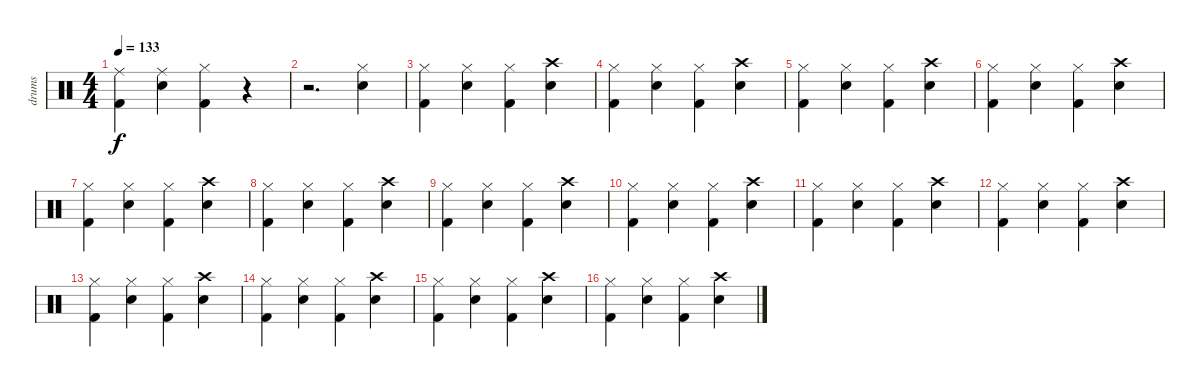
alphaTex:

\track ("drums" "drums") {instrument percussion}
\staff {score}
\articulation defaults
\ts (4 4)
\tempo 133
\clef neutral
\ks c
("Ride (middle)" "Kick (hit) 2").4{dy f} ("Ride (middle)" "Snare (hit) 2").4 ("Hi-Hat (closed)" "Kick (hit) 2").4 r.4 |
r.2{d} ("Hi-Hat (closed)" "Snare (hit) 2").4 |
("Hi-Hat (closed)" "Kick (hit) 2").4 ("Hi-Hat (closed)" "Snare (hit) 2").4 ("Hi-Hat (closed)" "Kick (hit) 2").4 ("Crash high (hit)" "Snare (hit) 2").4 |
("Hi-Hat (closed)" "Kick (hit) 2").4 ("Hi-Hat (closed)" "Snare (hit) 2").4 ("Hi-Hat (closed)" "Kick (hit) 2").4 ("Crash high (hit)" "Snare (hit) 2").4 |
("Hi-Hat (closed)" "Kick (hit) 2").4 ("Hi-Hat (closed)" "Snare (hit) 2").4 ("Hi-Hat (closed)" "Kick (hit) 2").4 ("Crash high (hit)" "Snare (hit) 2").4 |
("Hi-Hat (closed)" "Kick (hit) 2").4 ("Hi-Hat (closed)" "Snare (hit) 2").4 ("Hi-Hat (closed)" "Kick (hit) 2").4 ("Crash high (hit)" "Snare (hit) 2").4 |
("Hi-Hat (closed)" "Kick (hit) 2").4 ("Hi-Hat (closed)" "Snare (hit) 2").4 ("Hi-Hat (closed)" "Kick (hit) 2").4 ("Crash high (hit)" "Snare (hit) 2").4 |
("Hi-Hat (closed)" "Kick (hit) 2").4 ("Hi-Hat (closed)" "Snare (hit) 2").4 ("Hi-Hat (closed)" "Kick (hit) 2").4 ("Crash high (hit)" "Snare (hit) 2").4 |
("Hi-Hat (closed)" "Kick (hit) 2").4 ("Hi-Hat (closed)" "Snare (hit) 2").4 ("Hi-Hat (closed)" "Kick (hit) 2").4 ("Crash high (hit)" "Snare (hit) 2").4 |
("Hi-Hat (closed)" "Kick (hit) 2").4 ("Hi-Hat (closed)" "Snare (hit) 2").4 ("Hi-Hat (closed)" "Kick (hit) 2").4 ("Crash high (hit)" "Snare (hit) 2").4 |
("Hi-Hat (closed)" "Kick (hit) 2").4 ("Hi-Hat (closed)" "Snare (hit) 2").4 ("Hi-Hat (closed)" "Kick (hit) 2").4 ("Crash high (hit)" "Snare (hit) 2").4 |
("Hi-Hat (closed)" "Kick (hit) 2").4 ("Hi-Hat (closed)" "Snare (hit) 2").4 ("Hi-Hat (closed)" "Kick (hit) 2").4 ("Crash high (hit)" "Snare (hit) 2").4 |
("Hi-Hat (closed)" "Kick (hit) 2").4 ("Hi-Hat (closed)" "Snare (hit) 2").4 ("Hi-Hat (closed)" "Kick (hit) 2").4 ("Crash high (hit)" "Snare (hit) 2").4 |
("Hi-Hat (closed)" "Kick (hit) 2").4 ("Hi-Hat (closed)" "Snare (hit) 2").4 ("Hi-Hat (closed)" "Kick (hit) 2").4 ("Crash high (hit)" "Snare (hit) 2").4 |
("Hi-Hat (closed)" "Kick (hit) 2").4 ("Hi-Hat (closed)" "Snare (hit) 2").4 ("Hi-Hat (closed)" "Kick (hit) 2").4 ("Crash high (hit)" "Snare (hit) 2").4 |
("Hi-Hat (closed)" "Kick (hit) 2").4 ("Hi-Hat (closed)" "Snare (hit) 2").4 ("Hi-Hat (closed)" "Kick (hit) 2").4 ("Crash high (hit)" "Snare (hit) 2").4
